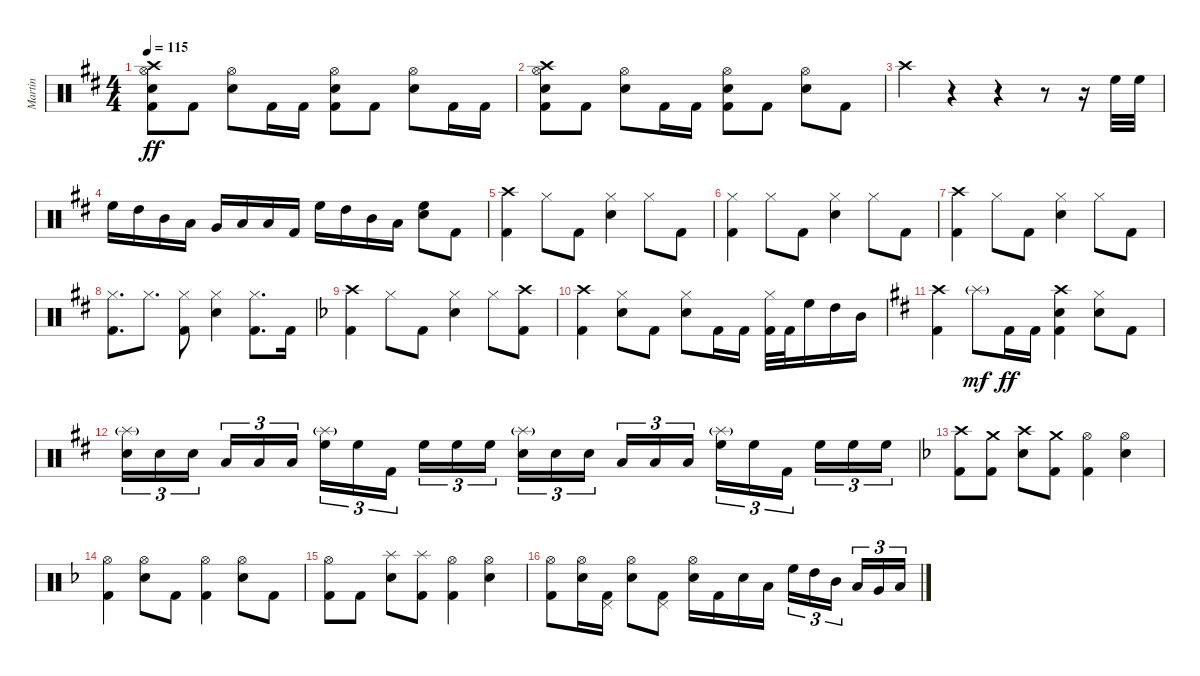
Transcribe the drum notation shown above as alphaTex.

\track ("Martin" "Martin") {instrument percussion}
\staff {score}
\articulation defaults
\ts (4 4)
\tempo 115
\clef neutral
\ks bminor
("Crash high (hit)" "Hi-Hat (open)" "Electric Snare (hit)" "Kick (hit) 2").8{dy ff} "Kick (hit) 2".8 ("Hi-Hat (open)" "Electric Snare (hit)").8 "Kick (hit) 2".16 "Kick (hit) 2".16 ("Hi-Hat (open)" "Electric Snare (hit)" "Kick (hit) 2").8 "Kick (hit) 2".8 ("Hi-Hat (open)" "Electric Snare (hit)").8 "Kick (hit) 2".16 "Kick (hit) 2".16 |
("Crash high (hit)" "Hi-Hat (open)" "Electric Snare (hit)" "Kick (hit) 2").8 "Kick (hit) 2".8 ("Hi-Hat (open)" "Electric Snare (hit)").8 "Kick (hit) 2".16 "Kick (hit) 2".16 ("Hi-Hat (open)" "Electric Snare (hit)" "Kick (hit) 2").8 "Kick (hit) 2".8 ("Hi-Hat (open)" "Electric Snare (hit)").8 "Kick (hit) 2".8 |
"Crash high (hit)".4 r.4 r.4 r.8 r.16 "High Floor Tom (hit)".32 "High Floor Tom (hit)".32 |
"High Floor Tom (hit)".16 "High Tom (hit)".16 "Mid Tom (hit)".16 "Low Tom (hit)".16 "Very Low Tom (hit)".16 "Low Floor Tom (hit)".16 "Low Floor Tom (hit)".16 "Kick (hit) 2".16 "High Floor Tom (hit)".16 "High Tom (hit)".16 "Mid Tom (hit)".16 "Low Tom (hit)".16 ("Electric Snare (hit)" "High Floor Tom (hit)").8 "Kick (hit) 2".8 |
("Crash high (hit)" "Kick (hit) 2").4 "Hi-Hat (closed)".8 "Kick (hit) 2".8 ("Hi-Hat (closed)" "Electric Snare (hit)").4 "Hi-Hat (closed)".8 "Kick (hit) 2".8 |
("Hi-Hat (closed)" "Kick (hit) 2").4 "Hi-Hat (closed)".8 "Kick (hit) 2".8 ("Hi-Hat (closed)" "Electric Snare (hit)").4 "Hi-Hat (closed)".8 "Kick (hit) 2".8 |
("Crash high (hit)" "Kick (hit) 2").4 "Hi-Hat (closed)".8 "Kick (hit) 2".8 ("Hi-Hat (closed)" "Electric Snare (hit)").4 "Hi-Hat (closed)".8 "Kick (hit) 2".8 |
("Hi-Hat (closed)" "Kick (hit) 2").8{d} "Hi-Hat (closed)".8{d} ("Hi-Hat (closed)" "Kick (hit) 2").8 ("Hi-Hat (closed)" "Electric Snare (hit)").4 ("Hi-Hat (closed)" "Kick (hit) 2").8{d} "Kick (hit) 2".16 |
\ks dminor
("Crash high (hit)" "Kick (hit) 2").4 "Hi-Hat (closed)".8 "Kick (hit) 2".8 ("Hi-Hat (closed)" "Electric Snare (hit)").4 "Hi-Hat (closed)".8 ("Crash high (hit)" "Kick (hit) 2").8 |
("Crash high (hit)" "Kick (hit) 2").4 ("Hi-Hat (closed)" "Electric Snare (hit)").8 "Kick (hit) 2".8 ("Hi-Hat (closed)" "Electric Snare (hit)").8 "Kick (hit) 2".16 "Kick (hit) 2".16 ("Hi-Hat (closed)" "Kick (hit) 2").32 "Kick (hit) 2".32 "High Floor Tom (hit)".16 "High Tom (hit)".16 "Mid Tom (hit)".16 |
\ks bminor
("Crash high (hit)" "Kick (hit) 2").4 "Splash (hit)"{g}.8{dy mf} "Kick (hit) 2".16{dy ff} "Kick (hit) 2".16 ("Crash high (hit)" "Electric Snare (hit)" "Kick (hit) 2").4 ("Hi-Hat (closed)" "Electric Snare (hit)").8 "Kick (hit) 2".8 |
("Splash (hit)"{g} "Electric Snare (hit)").16{tu (3 2)} "Electric Snare (hit)".16{tu (3 2)} "Electric Snare (hit)".16{tu (3 2) beam splitsecondary} "Low Tom (hit)".16{tu (3 2)} "Low Tom (hit)".16{tu (3 2)} "Low Tom (hit)".16{tu (3 2)} ("Splash (hit)"{g} "High Floor Tom (hit)").16{tu (3 2)} "High Floor Tom (hit)".16{tu (3 2)} "Kick (hit) 2".16{tu (3 2) beam splitsecondary} "High Floor Tom (hit)".16{tu (3 2)} "High Floor Tom (hit)".16{tu (3 2)} "High Floor Tom (hit)".16{tu (3 2)} ("Splash (hit)"{g} "Electric Snare (hit)").16{tu (3 2)} "Electric Snare (hit)".16{tu (3 2)} "Electric Snare (hit)".16{tu (3 2) beam splitsecondary} "Low Tom (hit)".16{tu (3 2)} "Low Tom (hit)".16{tu (3 2)} "Low Tom (hit)".16{tu (3 2)} ("Splash (hit)"{g} "High Floor Tom (hit)").16{tu (3 2)} "High Floor Tom (hit)".16{tu (3 2)} "Kick (hit) 2".16{tu (3 2) beam splitsecondary} "High Floor Tom (hit)".16{tu (3 2)} "High Floor Tom (hit)".16{tu (3 2)} "High Floor Tom (hit)".16{tu (3 2)} |
\ks dminor
("Crash high (hit)" "Kick (hit) 2").8 ("Crash medium (hit)" "Kick (hit) 2").8 ("Crash high (hit)" "Electric Snare (hit)").8 ("Crash medium (hit)" "Kick (hit) 2").8 ("Hi-Hat (open)" "Kick (hit) 2").4 ("Hi-Hat (open)" "Electric Snare (hit)").4 |
("Hi-Hat (open)" "Kick (hit) 2").4 ("Hi-Hat (open)" "Electric Snare (hit)").8 "Kick (hit) 2".8 ("Hi-Hat (open)" "Kick (hit) 2").4 ("Hi-Hat (open)" "Electric Snare (hit)").8 "Kick (hit) 2".8 |
("Hi-Hat (open)" "Kick (hit) 2").8 "Kick (hit) 2".8 ("Splash (hit)" "Electric Snare (hit)").8 ("Splash (hit)" "Kick (hit) 2").8 ("Hi-Hat (open)" "Kick (hit) 2").4 ("Hi-Hat (open)" "Electric Snare (hit)").4 |
("Hi-Hat (open)" "Kick (hit) 2").8 ("Hi-Hat (open)" "Electric Snare (hit)").16 ("Pedal Hi-Hat (hit)" "Kick (hit) 2").16 ("Hi-Hat (open)" "Electric Snare (hit)").8 ("Pedal Hi-Hat (hit)" "Kick (hit) 2").8 ("Hi-Hat (open)" "Electric Snare (hit)").16 "Kick (hit) 2".16 "Electric Snare (hit)".16 "Low Floor Tom (hit)".16 "High Floor Tom (hit)".16{tu (3 2)} "High Tom (hit)".16{tu (3 2)} "Mid Tom (hit)".16{tu (3 2) beam splitsecondary} "Low Tom (hit)".16{tu (3 2)} "Very Low Tom (hit)".16{tu (3 2)} "Low Floor Tom (hit)".16{tu (3 2)}
